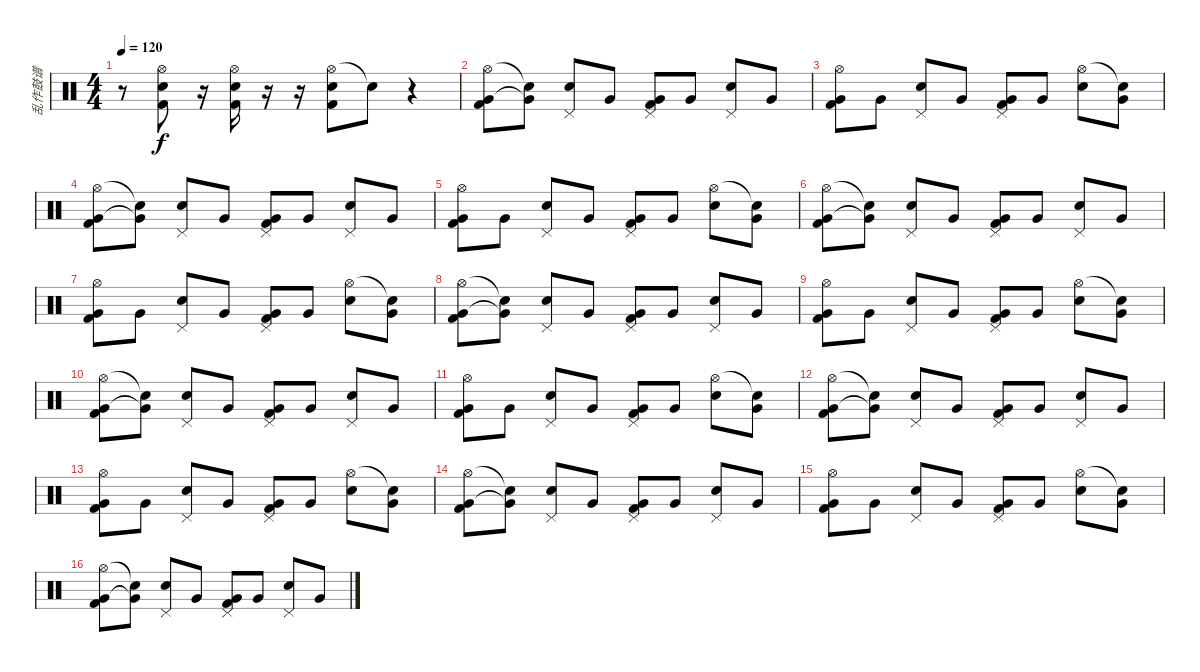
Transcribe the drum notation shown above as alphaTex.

\track ("乱作鼓谱" "乱作鼓谱") {instrument percussion}
\staff {score}
\articulation defaults
\ts (4 4)
\tempo 120
\clef neutral
\ks c
r.8{dy f} ("Hi-Hat (open)" "Snare (hit) 2" "Kick (hit) 2").8 r.16 ("Hi-Hat (open)" "Snare (hit) 2" "Kick (hit) 2").16 r.16 r.16 ("Hi-Hat (open)" "Snare (hit) 2" "Kick (hit) 2").8 "Snare (hit)"{t}.8 r.4 |
("Hi-Hat (open)" "Very Low Tom (hit)" "Kick (hit) 2").8 ("Snare (hit)"{t} "Very Low Tom (hit)"{t}).8 ("Pedal Hi-Hat (hit)" "Snare (hit) 2").8 "Very Low Tom (hit)".8 ("Pedal Hi-Hat (hit)" "Very Low Tom (hit)" "Kick (hit) 2").8 "Very Low Tom (hit)".8 ("Pedal Hi-Hat (hit)" "Snare (hit) 2").8 "Very Low Tom (hit)".8 |
("Hi-Hat (open)" "Very Low Tom (hit)" "Kick (hit) 2").8 "Very Low Tom (hit)".8 ("Pedal Hi-Hat (hit)" "Snare (hit) 2").8 "Very Low Tom (hit)".8 ("Pedal Hi-Hat (hit)" "Very Low Tom (hit)" "Kick (hit) 2").8 "Very Low Tom (hit)".8 ("Hi-Hat (open)" "Snare (hit) 2").8 ("Snare (hit)"{t} "Very Low Tom (hit)").8 |
("Hi-Hat (open)" "Very Low Tom (hit)" "Kick (hit) 2").8 ("Snare (hit)"{t} "Very Low Tom (hit)"{t}).8 ("Pedal Hi-Hat (hit)" "Snare (hit) 2").8 "Very Low Tom (hit)".8 ("Pedal Hi-Hat (hit)" "Very Low Tom (hit)" "Kick (hit) 2").8 "Very Low Tom (hit)".8 ("Pedal Hi-Hat (hit)" "Snare (hit) 2").8 "Very Low Tom (hit)".8 |
("Hi-Hat (open)" "Very Low Tom (hit)" "Kick (hit) 2").8 "Very Low Tom (hit)".8 ("Pedal Hi-Hat (hit)" "Snare (hit) 2").8 "Very Low Tom (hit)".8 ("Pedal Hi-Hat (hit)" "Very Low Tom (hit)" "Kick (hit) 2").8 "Very Low Tom (hit)".8 ("Hi-Hat (open)" "Snare (hit) 2").8 ("Snare (hit)"{t} "Very Low Tom (hit)").8 |
("Hi-Hat (open)" "Very Low Tom (hit)" "Kick (hit) 2").8 ("Snare (hit)"{t} "Very Low Tom (hit)"{t}).8 ("Pedal Hi-Hat (hit)" "Snare (hit) 2").8 "Very Low Tom (hit)".8 ("Pedal Hi-Hat (hit)" "Very Low Tom (hit)" "Kick (hit) 2").8 "Very Low Tom (hit)".8 ("Pedal Hi-Hat (hit)" "Snare (hit) 2").8 "Very Low Tom (hit)".8 |
("Hi-Hat (open)" "Very Low Tom (hit)" "Kick (hit) 2").8 "Very Low Tom (hit)".8 ("Pedal Hi-Hat (hit)" "Snare (hit) 2").8 "Very Low Tom (hit)".8 ("Pedal Hi-Hat (hit)" "Very Low Tom (hit)" "Kick (hit) 2").8 "Very Low Tom (hit)".8 ("Hi-Hat (open)" "Snare (hit) 2").8 ("Snare (hit)"{t} "Very Low Tom (hit)").8 |
("Hi-Hat (open)" "Very Low Tom (hit)" "Kick (hit) 2").8 ("Snare (hit)"{t} "Very Low Tom (hit)"{t}).8 ("Pedal Hi-Hat (hit)" "Snare (hit) 2").8 "Very Low Tom (hit)".8 ("Pedal Hi-Hat (hit)" "Very Low Tom (hit)" "Kick (hit) 2").8 "Very Low Tom (hit)".8 ("Pedal Hi-Hat (hit)" "Snare (hit) 2").8 "Very Low Tom (hit)".8 |
("Hi-Hat (open)" "Very Low Tom (hit)" "Kick (hit) 2").8 "Very Low Tom (hit)".8 ("Pedal Hi-Hat (hit)" "Snare (hit) 2").8 "Very Low Tom (hit)".8 ("Pedal Hi-Hat (hit)" "Very Low Tom (hit)" "Kick (hit) 2").8 "Very Low Tom (hit)".8 ("Hi-Hat (open)" "Snare (hit) 2").8 ("Snare (hit)"{t} "Very Low Tom (hit)").8 |
("Hi-Hat (open)" "Very Low Tom (hit)" "Kick (hit) 2").8 ("Snare (hit)"{t} "Very Low Tom (hit)"{t}).8 ("Pedal Hi-Hat (hit)" "Snare (hit) 2").8 "Very Low Tom (hit)".8 ("Pedal Hi-Hat (hit)" "Very Low Tom (hit)" "Kick (hit) 2").8 "Very Low Tom (hit)".8 ("Pedal Hi-Hat (hit)" "Snare (hit) 2").8 "Very Low Tom (hit)".8 |
("Hi-Hat (open)" "Very Low Tom (hit)" "Kick (hit) 2").8 "Very Low Tom (hit)".8 ("Pedal Hi-Hat (hit)" "Snare (hit) 2").8 "Very Low Tom (hit)".8 ("Pedal Hi-Hat (hit)" "Very Low Tom (hit)" "Kick (hit) 2").8 "Very Low Tom (hit)".8 ("Hi-Hat (open)" "Snare (hit) 2").8 ("Snare (hit)"{t} "Very Low Tom (hit)").8 |
("Hi-Hat (open)" "Very Low Tom (hit)" "Kick (hit) 2").8 ("Snare (hit)"{t} "Very Low Tom (hit)"{t}).8 ("Pedal Hi-Hat (hit)" "Snare (hit) 2").8 "Very Low Tom (hit)".8 ("Pedal Hi-Hat (hit)" "Very Low Tom (hit)" "Kick (hit) 2").8 "Very Low Tom (hit)".8 ("Pedal Hi-Hat (hit)" "Snare (hit) 2").8 "Very Low Tom (hit)".8 |
("Hi-Hat (open)" "Very Low Tom (hit)" "Kick (hit) 2").8 "Very Low Tom (hit)".8 ("Pedal Hi-Hat (hit)" "Snare (hit) 2").8 "Very Low Tom (hit)".8 ("Pedal Hi-Hat (hit)" "Very Low Tom (hit)" "Kick (hit) 2").8 "Very Low Tom (hit)".8 ("Hi-Hat (open)" "Snare (hit) 2").8 ("Snare (hit)"{t} "Very Low Tom (hit)").8 |
("Hi-Hat (open)" "Very Low Tom (hit)" "Kick (hit) 2").8 ("Snare (hit)"{t} "Very Low Tom (hit)"{t}).8 ("Pedal Hi-Hat (hit)" "Snare (hit) 2").8 "Very Low Tom (hit)".8 ("Pedal Hi-Hat (hit)" "Very Low Tom (hit)" "Kick (hit) 2").8 "Very Low Tom (hit)".8 ("Pedal Hi-Hat (hit)" "Snare (hit) 2").8 "Very Low Tom (hit)".8 |
("Hi-Hat (open)" "Very Low Tom (hit)" "Kick (hit) 2").8 "Very Low Tom (hit)".8 ("Pedal Hi-Hat (hit)" "Snare (hit) 2").8 "Very Low Tom (hit)".8 ("Pedal Hi-Hat (hit)" "Very Low Tom (hit)" "Kick (hit) 2").8 "Very Low Tom (hit)".8 ("Hi-Hat (open)" "Snare (hit) 2").8 ("Snare (hit)"{t} "Very Low Tom (hit)").8 |
("Hi-Hat (open)" "Very Low Tom (hit)" "Kick (hit) 2").8 ("Snare (hit)"{t} "Very Low Tom (hit)"{t}).8 ("Pedal Hi-Hat (hit)" "Snare (hit) 2").8 "Very Low Tom (hit)".8 ("Pedal Hi-Hat (hit)" "Very Low Tom (hit)" "Kick (hit) 2").8 "Very Low Tom (hit)".8 ("Pedal Hi-Hat (hit)" "Snare (hit) 2").8 "Very Low Tom (hit)".8
